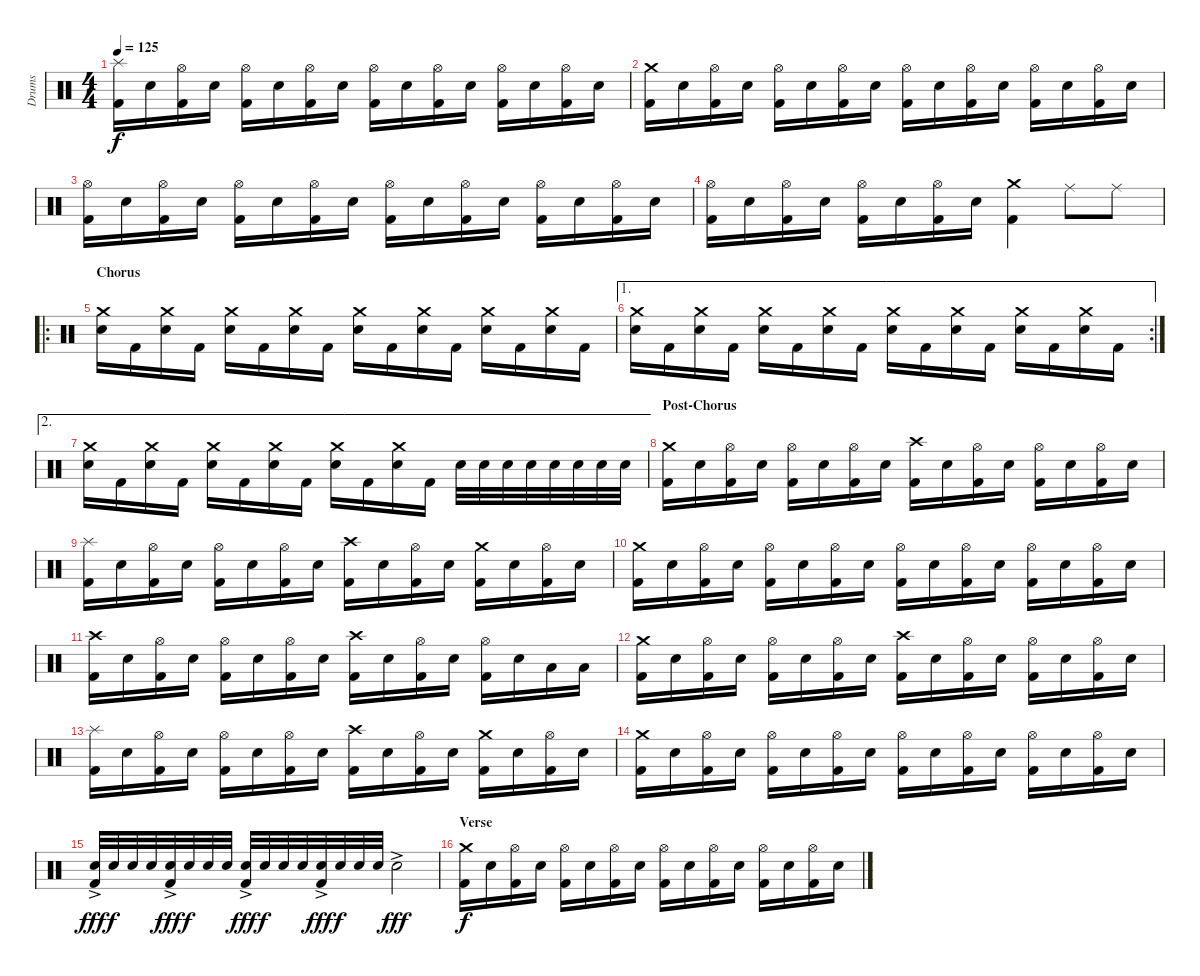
\track ("Drums" "Drums") {instrument percussion}
\staff {score}
\articulation defaults
\ts (4 4)
\tempo 125
\clef neutral
\ks c
("Splash (hit)" "Kick (hit) 2").16{dy f} "Electric Snare (hit)".16 ("Hi-Hat (open)" "Kick (hit) 2").16 "Electric Snare (hit)".16 ("Hi-Hat (open)" "Kick (hit) 2").16 "Electric Snare (hit)".16 ("Hi-Hat (open)" "Kick (hit) 2").16 "Electric Snare (hit)".16 ("Hi-Hat (open)" "Kick (hit) 2").16 "Electric Snare (hit)".16 ("Hi-Hat (open)" "Kick (hit) 2").16 "Electric Snare (hit)".16 ("Hi-Hat (open)" "Kick (hit) 2").16 "Electric Snare (hit)".16 ("Hi-Hat (open)" "Kick (hit) 2").16 "Electric Snare (hit)".16 |
("Crash medium (hit)" "Kick (hit) 2").16 "Electric Snare (hit)".16 ("Hi-Hat (open)" "Kick (hit) 2").16 "Electric Snare (hit)".16 ("Hi-Hat (open)" "Kick (hit) 2").16 "Electric Snare (hit)".16 ("Hi-Hat (open)" "Kick (hit) 2").16 "Electric Snare (hit)".16 ("Hi-Hat (open)" "Kick (hit) 2").16 "Electric Snare (hit)".16 ("Hi-Hat (open)" "Kick (hit) 2").16 "Electric Snare (hit)".16 ("Hi-Hat (open)" "Kick (hit) 2").16 "Electric Snare (hit)".16 ("Hi-Hat (open)" "Kick (hit) 2").16 "Electric Snare (hit)".16 |
("Hi-Hat (open)" "Kick (hit) 2").16 "Electric Snare (hit)".16 ("Hi-Hat (open)" "Kick (hit) 2").16 "Electric Snare (hit)".16 ("Hi-Hat (open)" "Kick (hit) 2").16 "Electric Snare (hit)".16 ("Hi-Hat (open)" "Kick (hit) 2").16 "Electric Snare (hit)".16 ("Hi-Hat (open)" "Kick (hit) 2").16 "Electric Snare (hit)".16 ("Hi-Hat (open)" "Kick (hit) 2").16 "Electric Snare (hit)".16 ("Hi-Hat (open)" "Kick (hit) 2").16 "Electric Snare (hit)".16 ("Hi-Hat (open)" "Kick (hit) 2").16 "Electric Snare (hit)".16 |
("Hi-Hat (open)" "Kick (hit) 2").16 "Electric Snare (hit)".16 ("Hi-Hat (open)" "Kick (hit) 2").16 "Electric Snare (hit)".16 ("Hi-Hat (open)" "Kick (hit) 2").16 "Electric Snare (hit)".16 ("Hi-Hat (open)" "Kick (hit) 2").16 "Electric Snare (hit)".16 ("Crash medium (hit)" "Kick (hit) 2").4 "Ride (middle)".8 "Ride (middle)".8 |
\ro
\section ("" "Chorus")
("Crash medium (hit)" "Electric Snare (hit)").16 "Kick (hit) 2".16 ("Crash medium (hit)" "Electric Snare (hit)").16 "Kick (hit) 2".16 ("Crash medium (hit)" "Electric Snare (hit)").16 "Kick (hit) 2".16 ("Crash medium (hit)" "Electric Snare (hit)").16 "Kick (hit) 2".16 ("Crash medium (hit)" "Electric Snare (hit)").16 "Kick (hit) 2".16 ("Crash medium (hit)" "Electric Snare (hit)").16 "Kick (hit) 2".16 ("Crash medium (hit)" "Electric Snare (hit)").16 "Kick (hit) 2".16 ("Crash medium (hit)" "Electric Snare (hit)").16 "Kick (hit) 2".16 |
\ae 1
\rc 2
("Crash medium (hit)" "Electric Snare (hit)").16 "Kick (hit) 2".16 ("Crash medium (hit)" "Electric Snare (hit)").16 "Kick (hit) 2".16 ("Crash medium (hit)" "Electric Snare (hit)").16 "Kick (hit) 2".16 ("Crash medium (hit)" "Electric Snare (hit)").16 "Kick (hit) 2".16 ("Crash medium (hit)" "Electric Snare (hit)").16 "Kick (hit) 2".16 ("Crash medium (hit)" "Electric Snare (hit)").16 "Kick (hit) 2".16 ("Crash medium (hit)" "Electric Snare (hit)").16 "Kick (hit) 2".16 ("Crash medium (hit)" "Electric Snare (hit)").16 "Kick (hit) 2".16 |
\ae 2
("Crash medium (hit)" "Electric Snare (hit)").16 "Kick (hit) 2".16 ("Crash medium (hit)" "Electric Snare (hit)").16 "Kick (hit) 2".16 ("Crash medium (hit)" "Electric Snare (hit)").16 "Kick (hit) 2".16 ("Crash medium (hit)" "Electric Snare (hit)").16 "Kick (hit) 2".16 ("Crash medium (hit)" "Electric Snare (hit)").16 "Kick (hit) 2".16 ("Crash medium (hit)" "Electric Snare (hit)").16 "Kick (hit) 2".16 "Electric Snare (hit)".32 "Electric Snare (hit)".32 "Electric Snare (hit)".32 "Electric Snare (hit)".32 "Electric Snare (hit)".32 "Electric Snare (hit)".32 "Electric Snare (hit)".32 "Electric Snare (hit)".32 |
\section ("" "Post-Chorus")
("Crash medium (hit)" "Kick (hit) 2").16 "Electric Snare (hit)".16 ("Hi-Hat (open)" "Kick (hit) 2").16 "Electric Snare (hit)".16 ("Hi-Hat (open)" "Kick (hit) 2").16 "Electric Snare (hit)".16 ("Hi-Hat (open)" "Kick (hit) 2").16 "Electric Snare (hit)".16 ("Crash high (hit)" "Kick (hit) 2").16 "Electric Snare (hit)".16 ("Hi-Hat (open)" "Kick (hit) 2").16 "Electric Snare (hit)".16 ("Hi-Hat (open)" "Kick (hit) 2").16 "Electric Snare (hit)".16 ("Hi-Hat (open)" "Kick (hit) 2").16 "Electric Snare (hit)".16 |
("Splash (hit)" "Kick (hit) 2").16 "Electric Snare (hit)".16 ("Hi-Hat (open)" "Kick (hit) 2").16 "Electric Snare (hit)".16 ("Hi-Hat (open)" "Kick (hit) 2").16 "Electric Snare (hit)".16 ("Hi-Hat (open)" "Kick (hit) 2").16 "Electric Snare (hit)".16 ("Crash high (hit)" "Kick (hit) 2").16 "Electric Snare (hit)".16 ("Hi-Hat (open)" "Kick (hit) 2").16 "Electric Snare (hit)".16 ("Crash medium (hit)" "Kick (hit) 2").16 "Electric Snare (hit)".16 ("Hi-Hat (open)" "Kick (hit) 2").16 "Electric Snare (hit)".16 |
("Crash medium (hit)" "Kick (hit) 2").16 "Electric Snare (hit)".16 ("Hi-Hat (open)" "Kick (hit) 2").16 "Electric Snare (hit)".16 ("Hi-Hat (open)" "Kick (hit) 2").16 "Electric Snare (hit)".16 ("Hi-Hat (open)" "Kick (hit) 2").16 "Electric Snare (hit)".16 ("Hi-Hat (open)" "Kick (hit) 2").16 "Electric Snare (hit)".16 ("Hi-Hat (open)" "Kick (hit) 2").16 "Electric Snare (hit)".16 ("Hi-Hat (open)" "Kick (hit) 2").16 "Electric Snare (hit)".16 ("Hi-Hat (open)" "Kick (hit) 2").16 "Electric Snare (hit)".16 |
("Crash high (hit)" "Kick (hit) 2").16 "Electric Snare (hit)".16 ("Hi-Hat (open)" "Kick (hit) 2").16 "Electric Snare (hit)".16 ("Hi-Hat (open)" "Kick (hit) 2").16 "Electric Snare (hit)".16 ("Hi-Hat (open)" "Kick (hit) 2").16 "Electric Snare (hit)".16 ("Crash high (hit)" "Kick (hit) 2").16 "Electric Snare (hit)".16 ("Hi-Hat (open)" "Kick (hit) 2").16 "Electric Snare (hit)".16 ("Hi-Hat (open)" "Kick (hit) 2").16 "Electric Snare (hit)".16 "Low Tom (hit)".16 "Low Tom (hit)".16 |
("Crash medium (hit)" "Kick (hit) 2").16 "Electric Snare (hit)".16 ("Hi-Hat (open)" "Kick (hit) 2").16 "Electric Snare (hit)".16 ("Hi-Hat (open)" "Kick (hit) 2").16 "Electric Snare (hit)".16 ("Hi-Hat (open)" "Kick (hit) 2").16 "Electric Snare (hit)".16 ("Crash high (hit)" "Kick (hit) 2").16 "Electric Snare (hit)".16 ("Hi-Hat (open)" "Kick (hit) 2").16 "Electric Snare (hit)".16 ("Hi-Hat (open)" "Kick (hit) 2").16 "Electric Snare (hit)".16 ("Hi-Hat (open)" "Kick (hit) 2").16 "Electric Snare (hit)".16 |
("Splash (hit)" "Kick (hit) 2").16 "Electric Snare (hit)".16 ("Hi-Hat (open)" "Kick (hit) 2").16 "Electric Snare (hit)".16 ("Hi-Hat (open)" "Kick (hit) 2").16 "Electric Snare (hit)".16 ("Hi-Hat (open)" "Kick (hit) 2").16 "Electric Snare (hit)".16 ("Crash high (hit)" "Kick (hit) 2").16 "Electric Snare (hit)".16 ("Hi-Hat (open)" "Kick (hit) 2").16 "Electric Snare (hit)".16 ("Crash medium (hit)" "Kick (hit) 2").16 "Electric Snare (hit)".16 ("Hi-Hat (open)" "Kick (hit) 2").16 "Electric Snare (hit)".16 |
("Crash medium (hit)" "Kick (hit) 2").16 "Electric Snare (hit)".16 ("Hi-Hat (open)" "Kick (hit) 2").16 "Electric Snare (hit)".16 ("Hi-Hat (open)" "Kick (hit) 2").16 "Electric Snare (hit)".16 ("Hi-Hat (open)" "Kick (hit) 2").16 "Electric Snare (hit)".16 ("Hi-Hat (open)" "Kick (hit) 2").16 "Electric Snare (hit)".16 ("Hi-Hat (open)" "Kick (hit) 2").16 "Electric Snare (hit)".16 ("Hi-Hat (open)" "Kick (hit) 2").16 "Electric Snare (hit)".16 ("Hi-Hat (open)" "Kick (hit) 2").16 "Electric Snare (hit)".16 |
("Electric Snare (hit)"{ac} "Kick (hit) 2").32{dy fff} "Electric Snare (hit)".32{dy f} "Electric Snare (hit)".32 "Electric Snare (hit)".32 ("Electric Snare (hit)"{ac} "Kick (hit) 2").32{dy fff} "Electric Snare (hit)".32{dy f} "Electric Snare (hit)".32 "Electric Snare (hit)".32 ("Electric Snare (hit)"{ac} "Kick (hit) 2").32{dy fff} "Electric Snare (hit)".32{dy f} "Electric Snare (hit)".32 "Electric Snare (hit)".32 ("Electric Snare (hit)"{ac} "Kick (hit) 2").32{dy fff} "Electric Snare (hit)".32{dy f} "Electric Snare (hit)".32 "Electric Snare (hit)".32 "Electric Snare (hit)"{ac}.2{dy fff} |
\section ("" "Verse")
("Crash medium (hit)" "Kick (hit) 2").16{dy f} "Electric Snare (hit)".16 ("Hi-Hat (open)" "Kick (hit) 2").16 "Electric Snare (hit)".16 ("Hi-Hat (open)" "Kick (hit) 2").16 "Electric Snare (hit)".16 ("Hi-Hat (open)" "Kick (hit) 2").16 "Electric Snare (hit)".16 ("Hi-Hat (open)" "Kick (hit) 2").16 "Electric Snare (hit)".16 ("Hi-Hat (open)" "Kick (hit) 2").16 "Electric Snare (hit)".16 ("Hi-Hat (open)" "Kick (hit) 2").16 "Electric Snare (hit)".16 ("Hi-Hat (open)" "Kick (hit) 2").16 "Electric Snare (hit)".16
